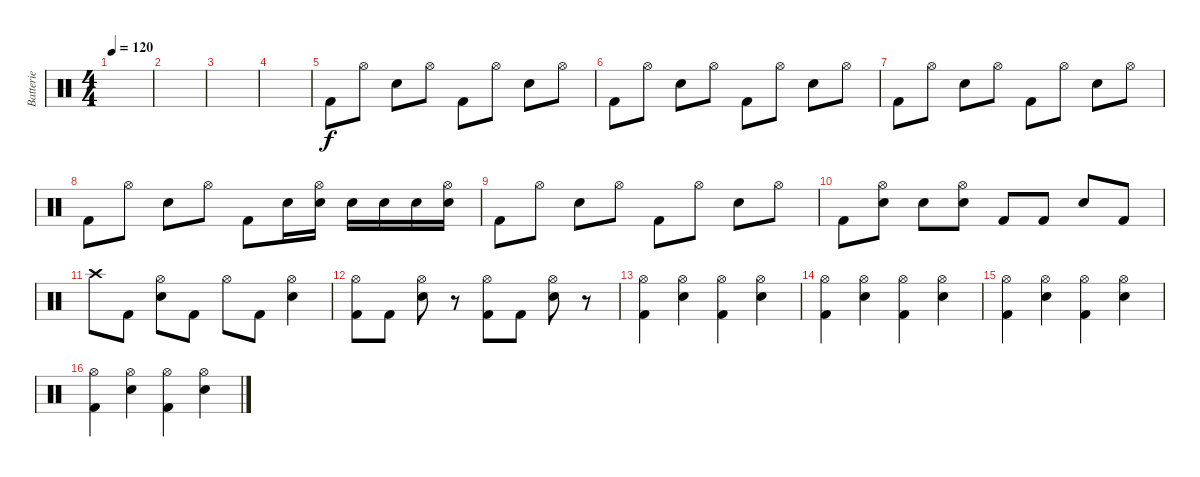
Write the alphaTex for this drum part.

\track ("Batterie" "Batterie") {instrument percussion}
\staff {score}
\articulation defaults
\ts (4 4)
\tempo 120
\clef neutral
\ks c
|
|
|
|
"Kick (hit) 2".8 "Hi-Hat (open)".8 "Snare (hit) 2".8 "Hi-Hat (open)".8 "Kick (hit) 2".8 "Hi-Hat (open)".8 "Snare (hit) 2".8 "Hi-Hat (open)".8 |
"Kick (hit) 2".8 "Hi-Hat (open)".8 "Snare (hit) 2".8 "Hi-Hat (open)".8 "Kick (hit) 2".8 "Hi-Hat (open)".8 "Snare (hit) 2".8 "Hi-Hat (open)".8 |
"Kick (hit) 2".8 "Hi-Hat (open)".8 "Snare (hit) 2".8 "Hi-Hat (open)".8 "Kick (hit) 2".8 "Hi-Hat (open)".8 "Snare (hit) 2".8 "Hi-Hat (open)".8 |
"Kick (hit) 2".8 "Hi-Hat (open)".8 "Snare (hit) 2".8 "Hi-Hat (open)".8 "Kick (hit) 2".8 "Snare (hit) 2".16 ("Hi-Hat (open)" "Snare (hit) 2").16 "Snare (hit) 2".16 "Snare (hit) 2".16 "Snare (hit) 2".16 ("Hi-Hat (open)" "Snare (hit) 2").16 |
"Kick (hit) 2".8 "Hi-Hat (open)".8 "Snare (hit) 2".8 "Hi-Hat (open)".8 "Kick (hit) 2".8 "Hi-Hat (open)".8 "Snare (hit) 2".8 "Hi-Hat (open)".8 |
"Kick (hit) 2".8 ("Hi-Hat (open)" "Snare (hit) 2").8 "Snare (hit) 2".8 ("Hi-Hat (open)" "Snare (hit) 2").8 "Kick (hit) 2".8 "Kick (hit) 2".8 "Snare (hit) 2".8 "Kick (hit) 2".8 |
"Crash high (hit)".8 "Kick (hit) 2".8 ("Hi-Hat (open)" "Snare (hit) 2").8 "Kick (hit) 2".8 "Hi-Hat (open)".8 "Kick (hit) 2".8 ("Hi-Hat (open)" "Snare (hit) 2").4 |
("Hi-Hat (open)" "Kick (hit) 2").8 "Kick (hit) 2".8 ("Hi-Hat (open)" "Snare (hit) 2").8 r.8 ("Hi-Hat (open)" "Kick (hit) 2").8 "Kick (hit) 2".8 ("Hi-Hat (open)" "Snare (hit) 2").8 r.8 |
("Hi-Hat (open)" "Kick (hit) 2").4 ("Hi-Hat (open)" "Snare (hit) 2").4 ("Hi-Hat (open)" "Kick (hit) 2").4 ("Hi-Hat (open)" "Snare (hit) 2").4 |
("Hi-Hat (open)" "Kick (hit) 2").4 ("Hi-Hat (open)" "Snare (hit) 2").4 ("Hi-Hat (open)" "Kick (hit) 2").4 ("Hi-Hat (open)" "Snare (hit) 2").4 |
("Hi-Hat (open)" "Kick (hit) 2").4 ("Hi-Hat (open)" "Snare (hit) 2").4 ("Hi-Hat (open)" "Kick (hit) 2").4 ("Hi-Hat (open)" "Snare (hit) 2").4 |
("Hi-Hat (open)" "Kick (hit) 2").4 ("Hi-Hat (open)" "Snare (hit) 2").4 ("Hi-Hat (open)" "Kick (hit) 2").4 ("Hi-Hat (open)" "Snare (hit) 2").4
